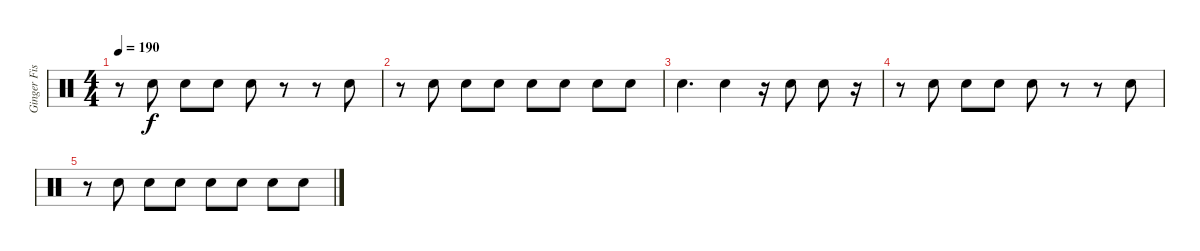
\track ("Ginger Fish" "Ginger Fis") {instrument percussion}
\staff {score}
\articulation defaults
\ts (4 4)
\tempo 190
\clef neutral
\ks c
r.8{dy f} "Electric Snare (hit)".8 "Electric Snare (hit)".8 "Electric Snare (hit)".8 "Electric Snare (hit)".8 r.8 r.8 "Electric Snare (hit)".8 |
r.8 "Electric Snare (hit)".8 "Electric Snare (hit)".8 "Electric Snare (hit)".8 "Electric Snare (hit)".8 "Electric Snare (hit)".8 "Electric Snare (hit)".8 "Electric Snare (hit)".8 |
"Electric Snare (hit)".4{d} "Electric Snare (hit)".4 r.16 "Electric Snare (hit)".8 "Electric Snare (hit)".8 r.16 |
r.8 "Electric Snare (hit)".8 "Electric Snare (hit)".8 "Electric Snare (hit)".8 "Electric Snare (hit)".8 r.8 r.8 "Electric Snare (hit)".8 |
r.8 "Electric Snare (hit)".8 "Electric Snare (hit)".8 "Electric Snare (hit)".8 "Electric Snare (hit)".8 "Electric Snare (hit)".8 "Electric Snare (hit)".8 "Electric Snare (hit)".8
